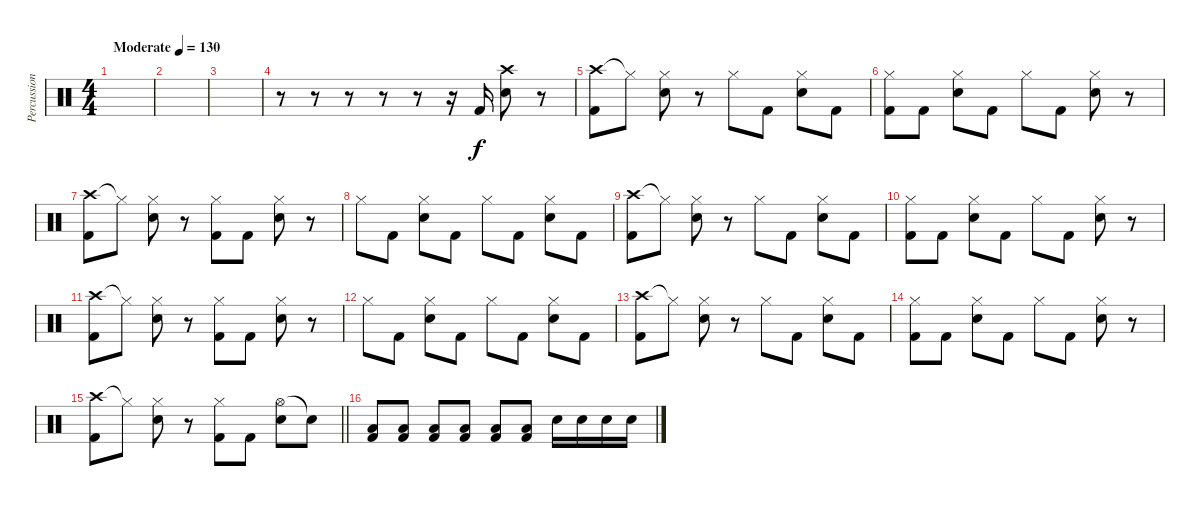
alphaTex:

\track ("Percussion" "Percussion") {instrument percussion}
\staff {score}
\articulation defaults
\ts (4 4)
\tempo (130 "Moderate")
\clef neutral
\ks c
|
|
|
r.8 r.8 r.8 r.8 r.8 r.16 "Kick (hit) 2".16 ("Crash high (hit)" "Snare (hit) 2").8 r.8 |
("Crash high (hit)" "Kick (hit) 2").8 "Hi-Hat (closed)"{t}.8 ("Hi-Hat (closed)" "Snare (hit) 2").8 r.8 "Hi-Hat (closed)".8 "Kick (hit) 2".8 ("Hi-Hat (closed)" "Snare (hit) 2").8 "Kick (hit) 2".8 |
("Hi-Hat (closed)" "Kick (hit) 2").8 "Kick (hit) 2".8 ("Hi-Hat (closed)" "Snare (hit) 2").8 "Kick (hit) 2".8 "Hi-Hat (closed)".8 "Kick (hit) 2".8 ("Hi-Hat (closed)" "Snare (hit) 2").8 r.8 |
("Crash high (hit)" "Kick (hit) 2").8 "Hi-Hat (closed)"{t}.8 ("Hi-Hat (closed)" "Snare (hit) 2").8 r.8 ("Hi-Hat (closed)" "Kick (hit) 2").8 "Kick (hit) 2".8 ("Hi-Hat (closed)" "Snare (hit) 2").8 r.8 |
"Hi-Hat (closed)".8 "Kick (hit) 2".8 ("Hi-Hat (closed)" "Snare (hit) 2").8 "Kick (hit) 2".8 "Hi-Hat (closed)".8 "Kick (hit) 2".8 ("Hi-Hat (closed)" "Snare (hit) 2").8 "Kick (hit) 2".8 |
("Crash high (hit)" "Kick (hit) 2").8 "Hi-Hat (closed)"{t}.8 ("Hi-Hat (closed)" "Snare (hit) 2").8 r.8 "Hi-Hat (closed)".8 "Kick (hit) 2".8 ("Hi-Hat (closed)" "Snare (hit) 2").8 "Kick (hit) 2".8 |
("Hi-Hat (closed)" "Kick (hit) 2").8 "Kick (hit) 2".8 ("Hi-Hat (closed)" "Snare (hit) 2").8 "Kick (hit) 2".8 "Hi-Hat (closed)".8 "Kick (hit) 2".8 ("Hi-Hat (closed)" "Snare (hit) 2").8 r.8 |
("Crash high (hit)" "Kick (hit) 2").8 "Hi-Hat (closed)"{t}.8 ("Hi-Hat (closed)" "Snare (hit) 2").8 r.8 ("Hi-Hat (closed)" "Kick (hit) 2").8 "Kick (hit) 2".8 ("Hi-Hat (closed)" "Snare (hit) 2").8 r.8 |
"Hi-Hat (closed)".8 "Kick (hit) 2".8 ("Hi-Hat (closed)" "Snare (hit) 2").8 "Kick (hit) 2".8 "Hi-Hat (closed)".8 "Kick (hit) 2".8 ("Hi-Hat (closed)" "Snare (hit) 2").8 "Kick (hit) 2".8 |
("Crash high (hit)" "Kick (hit) 2").8 "Hi-Hat (closed)"{t}.8 ("Hi-Hat (closed)" "Snare (hit) 2").8 r.8 "Hi-Hat (closed)".8 "Kick (hit) 2".8 ("Hi-Hat (closed)" "Snare (hit) 2").8 "Kick (hit) 2".8 |
("Hi-Hat (closed)" "Kick (hit) 2").8 "Kick (hit) 2".8 ("Hi-Hat (closed)" "Snare (hit) 2").8 "Kick (hit) 2".8 "Hi-Hat (closed)".8 "Kick (hit) 2".8 ("Hi-Hat (closed)" "Snare (hit) 2").8 r.8 |
\barLineRight lightlight
("Crash high (hit)" "Kick (hit) 2").8 "Hi-Hat (closed)"{t}.8 ("Hi-Hat (closed)" "Snare (hit) 2").8 r.8 ("Hi-Hat (closed)" "Kick (hit) 2").8 "Kick (hit) 2".8 ("Hi-Hat (open)" "Snare (hit) 2").8 "Snare (hit)"{t}.8 |
("Low Floor Tom (hit)" "Kick (hit) 2").8 ("Low Floor Tom (hit)" "Kick (hit) 2").8 ("Low Floor Tom (hit)" "Kick (hit) 2").8 ("Low Floor Tom (hit)" "Kick (hit) 2").8 ("Low Floor Tom (hit)" "Kick (hit) 2").8 ("Low Floor Tom (hit)" "Kick (hit) 2").8 "Snare (hit) 2".16 "Snare (hit) 2".16 "Snare (hit) 2".16 "Snare (hit) 2".16
